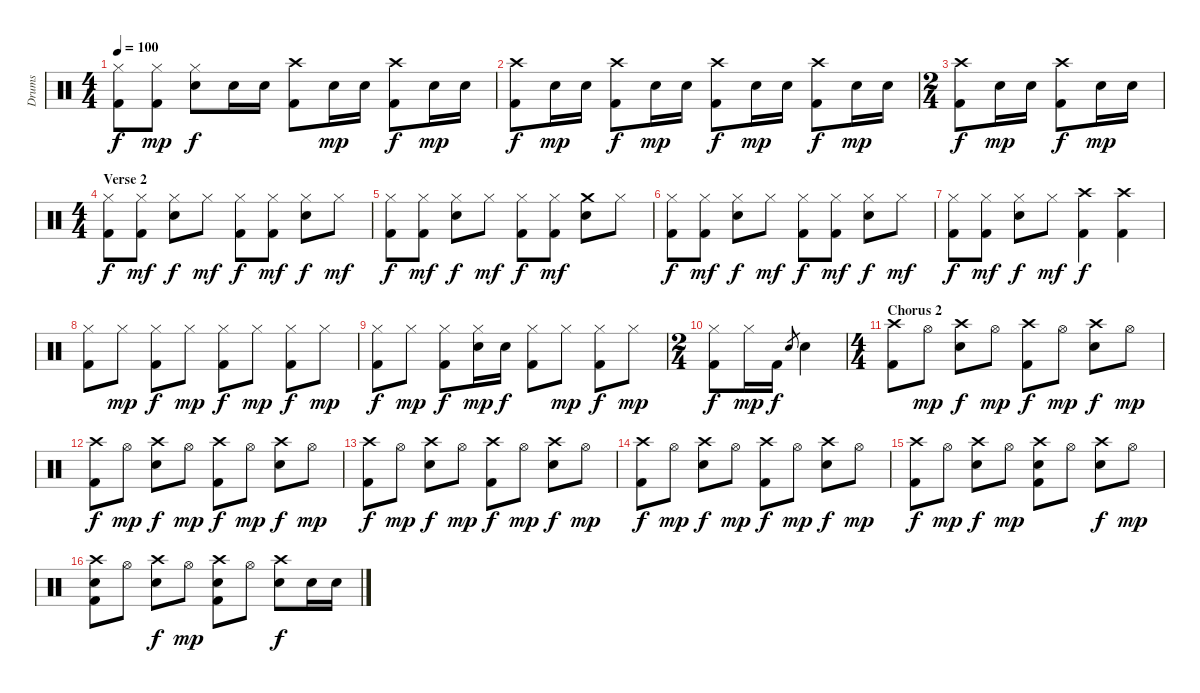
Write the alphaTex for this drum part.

\track ("Drums" "Drums") {instrument percussion}
\staff {score}
\articulation defaults
\ts (4 4)
\tempo 100
\clef neutral
\ks c
("Hi-Hat (closed)" "Kick (hit) 2").8{dy f} ("Hi-Hat (closed)" "Kick (hit) 2").8{dy mp} ("Hi-Hat (closed)" "Snare (hit) 2").8{dy f} "Snare (hit) 2".16 "Snare (hit) 2".16 ("Crash high (hit)" "Kick (hit) 2").8 "Snare (hit) 2".16{dy mp} "Snare (hit) 2".16 ("Crash high (hit)" "Kick (hit) 2").8{dy f} "Snare (hit) 2".16{dy mp} "Snare (hit) 2".16 |
("Crash high (hit)" "Kick (hit) 2").8{dy f} "Snare (hit) 2".16{dy mp} "Snare (hit) 2".16 ("Crash high (hit)" "Kick (hit) 2").8{dy f} "Snare (hit) 2".16{dy mp} "Snare (hit) 2".16 ("Crash high (hit)" "Kick (hit) 2").8{dy f} "Snare (hit) 2".16{dy mp} "Snare (hit) 2".16 ("Crash high (hit)" "Kick (hit) 2").8{dy f} "Snare (hit) 2".16{dy mp} "Snare (hit) 2".16 |
\ts (2 4)
("Crash high (hit)" "Kick (hit) 2").8{dy f} "Snare (hit) 2".16{dy mp} "Snare (hit) 2".16 ("Crash high (hit)" "Kick (hit) 2").8{dy f} "Snare (hit) 2".16{dy mp} "Snare (hit) 2".16 |
\ts (4 4)
\section ("" "Verse 2")
("Hi-Hat (closed)" "Kick (hit) 2").8{dy f} ("Hi-Hat (closed)" "Kick (hit) 2").8{dy mf} ("Hi-Hat (closed)" "Snare (hit) 2").8{dy f} "Hi-Hat (closed)".8{dy mf} ("Hi-Hat (closed)" "Kick (hit) 2").8{dy f} ("Hi-Hat (closed)" "Kick (hit) 2").8{dy mf} ("Hi-Hat (closed)" "Snare (hit) 2").8{dy f} "Hi-Hat (closed)".8{dy mf} |
("Hi-Hat (closed)" "Kick (hit) 2").8{dy f} ("Hi-Hat (closed)" "Kick (hit) 2").8{dy mf} ("Hi-Hat (closed)" "Snare (hit) 2").8{dy f} "Hi-Hat (closed)".8{dy mf} ("Hi-Hat (closed)" "Kick (hit) 2").8{dy f} ("Hi-Hat (closed)" "Kick (hit) 2").8{dy mf} ("Crash medium (hit)" "Snare (hit) 2").8 "Hi-Hat (closed)".8 |
("Hi-Hat (closed)" "Kick (hit) 2").8{dy f} ("Hi-Hat (closed)" "Kick (hit) 2").8{dy mf} ("Hi-Hat (closed)" "Snare (hit) 2").8{dy f} "Hi-Hat (closed)".8{dy mf} ("Hi-Hat (closed)" "Kick (hit) 2").8{dy f} ("Hi-Hat (closed)" "Kick (hit) 2").8{dy mf} ("Hi-Hat (closed)" "Snare (hit) 2").8{dy f} "Hi-Hat (closed)".8{dy mf} |
("Hi-Hat (closed)" "Kick (hit) 2").8{dy f} ("Hi-Hat (closed)" "Kick (hit) 2").8{dy mf} ("Hi-Hat (closed)" "Snare (hit) 2").8{dy f} "Hi-Hat (closed)".8{dy mf} ("Crash high (hit)" "Kick (hit) 2").4{dy f} ("Crash high (hit)" "Kick (hit) 2").4 |
("Hi-Hat (closed)" "Kick (hit) 2").8 "Hi-Hat (closed)".8{dy mp} ("Hi-Hat (closed)" "Kick (hit) 2").8{dy f} "Hi-Hat (closed)".8{dy mp} ("Hi-Hat (closed)" "Kick (hit) 2").8{dy f} "Hi-Hat (closed)".8{dy mp} ("Hi-Hat (closed)" "Kick (hit) 2").8{dy f} "Hi-Hat (closed)".8{dy mp} |
("Hi-Hat (closed)" "Kick (hit) 2").8{dy f} "Hi-Hat (closed)".8{dy mp} ("Hi-Hat (closed)" "Kick (hit) 2").8{dy f} ("Hi-Hat (closed)" "Snare (hit) 2").16{dy mp} "Snare (hit) 2".16{dy f} ("Hi-Hat (closed)" "Kick (hit) 2").8 "Hi-Hat (closed)".8{dy mp} ("Hi-Hat (closed)" "Kick (hit) 2").8{dy f} "Hi-Hat (closed)".8{dy mp} |
\ts (2 4)
("Hi-Hat (closed)" "Kick (hit) 2").8{dy f} "Hi-Hat (closed)".16{dy mp} "Kick (hit) 2".16{dy f} "Snare (hit) 2".8{gr} "Snare (hit) 2".4 |
\ts (4 4)
\section ("" "Chorus 2")
("Crash high (hit)" "Kick (hit) 2").8 "Hi-Hat (open)".8{dy mp} ("Crash high (hit)" "Snare (hit) 2").8{dy f} "Hi-Hat (open)".8{dy mp} ("Crash high (hit)" "Kick (hit) 2").8{dy f} "Hi-Hat (open)".8{dy mp} ("Crash high (hit)" "Snare (hit) 2").8{dy f} "Hi-Hat (open)".8{dy mp} |
("Crash high (hit)" "Kick (hit) 2").8{dy f} "Hi-Hat (open)".8{dy mp} ("Crash high (hit)" "Snare (hit) 2").8{dy f} "Hi-Hat (open)".8{dy mp} ("Crash high (hit)" "Kick (hit) 2").8{dy f} "Hi-Hat (open)".8{dy mp} ("Crash high (hit)" "Snare (hit) 2").8{dy f} "Hi-Hat (open)".8{dy mp} |
("Crash high (hit)" "Kick (hit) 2").8{dy f} "Hi-Hat (open)".8{dy mp} ("Crash high (hit)" "Snare (hit) 2").8{dy f} "Hi-Hat (open)".8{dy mp} ("Crash high (hit)" "Kick (hit) 2").8{dy f} "Hi-Hat (open)".8{dy mp} ("Crash high (hit)" "Snare (hit) 2").8{dy f} "Hi-Hat (open)".8{dy mp} |
("Crash high (hit)" "Kick (hit) 2").8{dy f} "Hi-Hat (open)".8{dy mp} ("Crash high (hit)" "Snare (hit) 2").8{dy f} "Hi-Hat (open)".8{dy mp} ("Crash high (hit)" "Kick (hit) 2").8{dy f} "Hi-Hat (open)".8{dy mp} ("Crash high (hit)" "Snare (hit) 2").8{dy f} "Hi-Hat (open)".8{dy mp} |
("Crash high (hit)" "Kick (hit) 2").8{dy f} "Hi-Hat (open)".8{dy mp} ("Crash high (hit)" "Snare (hit) 2").8{dy f} "Hi-Hat (open)".8{dy mp} ("Crash high (hit)" "Snare (hit) 2" "Kick (hit) 2").8 "Hi-Hat (open)".8 ("Crash high (hit)" "Snare (hit) 2").8{dy f} "Hi-Hat (open)".8{dy mp} |
("Crash high (hit)" "Snare (hit) 2" "Kick (hit) 2").8 "Hi-Hat (open)".8 ("Crash high (hit)" "Snare (hit) 2").8{dy f} "Hi-Hat (open)".8{dy mp} ("Crash high (hit)" "Snare (hit) 2" "Kick (hit) 2").8 "Hi-Hat (open)".8 ("Crash high (hit)" "Snare (hit) 2").8{dy f} "Snare (hit) 2".16 "Snare (hit) 2".16
